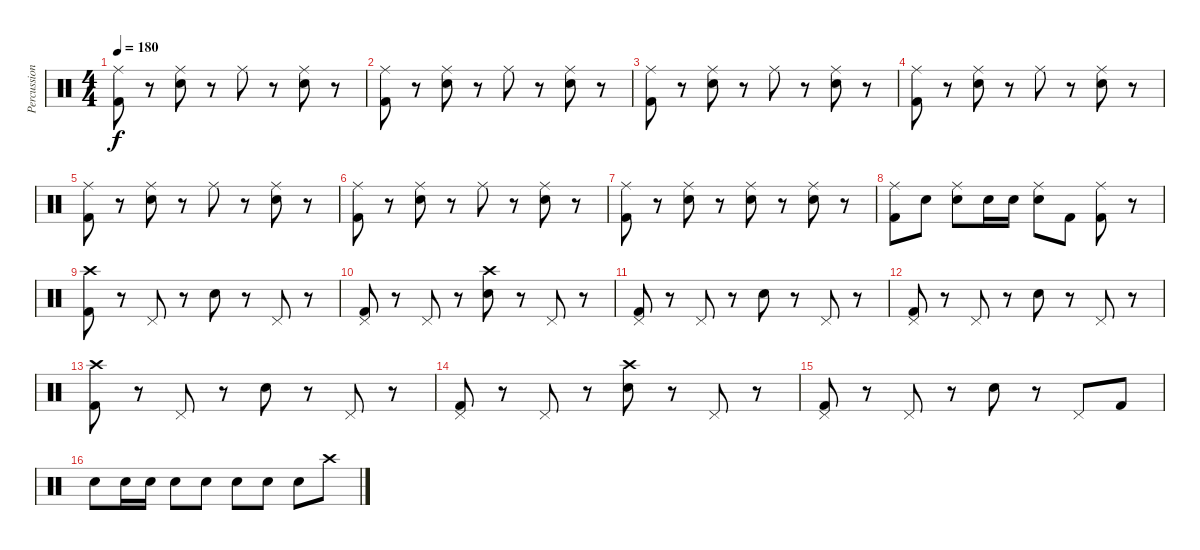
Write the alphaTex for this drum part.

\track ("Percussion" "Percussion") {instrument percussion}
\staff {score}
\articulation defaults
\ts (4 4)
\tempo 180
\clef neutral
\ks c
("Ride (middle)" "Kick (hit) 2").8{dy f} r.8 ("Ride (middle)" "Snare (hit) 2").8 r.8 "Ride (middle)".8 r.8 ("Ride (middle)" "Snare (hit) 2").8 r.8 |
("Ride (middle)" "Kick (hit) 2").8 r.8 ("Ride (middle)" "Snare (hit) 2").8 r.8 "Ride (middle)".8 r.8 ("Ride (middle)" "Snare (hit) 2").8 r.8 |
("Ride (middle)" "Kick (hit) 2").8 r.8 ("Ride (middle)" "Snare (hit) 2").8 r.8 "Ride (middle)".8 r.8 ("Ride (middle)" "Snare (hit) 2").8 r.8 |
("Ride (middle)" "Kick (hit) 2").8 r.8 ("Ride (middle)" "Snare (hit) 2").8 r.8 "Ride (middle)".8 r.8 ("Ride (middle)" "Snare (hit) 2").8 r.8 |
("Ride (middle)" "Kick (hit) 2").8 r.8 ("Ride (middle)" "Snare (hit) 2").8 r.8 "Ride (middle)".8 r.8 ("Ride (middle)" "Snare (hit) 2").8 r.8 |
("Ride (middle)" "Kick (hit) 2").8 r.8 ("Ride (middle)" "Snare (hit) 2").8 r.8 "Ride (middle)".8 r.8 ("Ride (middle)" "Snare (hit) 2").8 r.8 |
("Ride (middle)" "Kick (hit) 2").8 r.8 ("Ride (middle)" "Snare (hit) 2").8 r.8 ("Ride (middle)" "Snare (hit) 2").8 r.8 ("Ride (middle)" "Snare (hit) 2").8 r.8 |
("Ride (middle)" "Kick (hit) 2").8 "Snare (hit) 2".8 ("Ride (middle)" "Snare (hit) 2").8 "Snare (hit) 2".16 "Snare (hit) 2".16 ("Ride (middle)" "Snare (hit) 2").8 "Kick (hit) 2".8 ("Ride (middle)" "Kick (hit) 2").8 r.8 |
("Crash high (hit)" "Kick (hit) 2").8 r.8 "Pedal Hi-Hat (hit)".8 r.8 "Snare (hit) 2".8 r.8 "Pedal Hi-Hat (hit)".8 r.8 |
("Pedal Hi-Hat (hit)" "Kick (hit) 2").8 r.8 "Pedal Hi-Hat (hit)".8 r.8 ("Crash high (hit)" "Snare (hit) 2").8 r.8 "Pedal Hi-Hat (hit)".8 r.8 |
("Pedal Hi-Hat (hit)" "Kick (hit) 2").8 r.8 "Pedal Hi-Hat (hit)".8 r.8 "Snare (hit) 2".8 r.8 "Pedal Hi-Hat (hit)".8 r.8 |
("Pedal Hi-Hat (hit)" "Kick (hit) 2").8 r.8 "Pedal Hi-Hat (hit)".8 r.8 "Snare (hit) 2".8 r.8 "Pedal Hi-Hat (hit)".8 r.8 |
("Crash high (hit)" "Kick (hit) 2").8 r.8 "Pedal Hi-Hat (hit)".8 r.8 "Snare (hit) 2".8 r.8 "Pedal Hi-Hat (hit)".8 r.8 |
("Pedal Hi-Hat (hit)" "Kick (hit) 2").8 r.8 "Pedal Hi-Hat (hit)".8 r.8 ("Crash high (hit)" "Snare (hit) 2").8 r.8 "Pedal Hi-Hat (hit)".8 r.8 |
("Pedal Hi-Hat (hit)" "Kick (hit) 2").8 r.8 "Pedal Hi-Hat (hit)".8 r.8 "Snare (hit) 2".8 r.8 "Pedal Hi-Hat (hit)".8 "Kick (hit) 2".8 |
"Snare (hit) 2".8 "Snare (hit) 2".16 "Snare (hit) 2".16 "Snare (hit) 2".8 "Snare (hit) 2".8 "Snare (hit) 2".8 "Snare (hit) 2".8 "Snare (hit) 2".8 "Crash high (hit)".8
